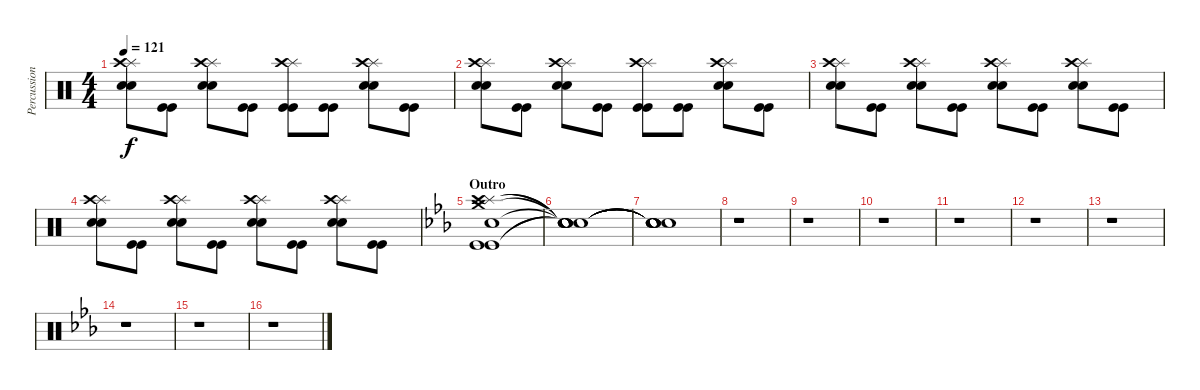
\track ("Percussions" "Percussion") {instrument percussion}
\staff {score}
\articulation defaults
\ts (4 4)
\tempo 121
\clef neutral
\ks c
("Splash (hit)" "Crash high (hit)" "Electric Snare (hit)" "Electric Snare (hit)").8{dy f} ("Kick (hit)" "Kick (hit)").8 ("Splash (hit)" "Crash high (hit)" "Electric Snare (hit)" "Electric Snare (hit)").8 ("Kick (hit)" "Kick (hit)").8 ("Splash (hit)" "Crash high (hit)" "Kick (hit)" "Kick (hit)").8 ("Kick (hit)" "Kick (hit)").8 ("Splash (hit)" "Crash high (hit)" "Electric Snare (hit)" "Electric Snare (hit)").8 ("Kick (hit)" "Kick (hit)").8 |
("Splash (hit)" "Crash high (hit)" "Electric Snare (hit)" "Electric Snare (hit)").8 ("Kick (hit)" "Kick (hit)").8 ("Splash (hit)" "Crash high (hit)" "Electric Snare (hit)" "Electric Snare (hit)").8 ("Kick (hit)" "Kick (hit)").8 ("Splash (hit)" "Crash high (hit)" "Kick (hit)" "Kick (hit)").8 ("Kick (hit)" "Kick (hit)").8 ("Splash (hit)" "Crash high (hit)" "Electric Snare (hit)" "Electric Snare (hit)").8 ("Kick (hit)" "Kick (hit)").8 |
("Splash (hit)" "Crash high (hit)" "Electric Snare (hit)" "Electric Snare (hit)").8 ("Kick (hit)" "Kick (hit)").8 ("Splash (hit)" "Crash high (hit)" "Electric Snare (hit)" "Electric Snare (hit)").8 ("Kick (hit)" "Kick (hit)").8 ("Splash (hit)" "Crash high (hit)" "Electric Snare (hit)" "Electric Snare (hit)").8 ("Kick (hit)" "Kick (hit)").8 ("Splash (hit)" "Crash high (hit)" "Electric Snare (hit)" "Electric Snare (hit)").8 ("Kick (hit)" "Kick (hit)").8 |
("Splash (hit)" "Crash high (hit)" "Electric Snare (hit)" "Electric Snare (hit)").8 ("Kick (hit)" "Kick (hit)").8 ("Splash (hit)" "Crash high (hit)" "Electric Snare (hit)" "Electric Snare (hit)").8 ("Kick (hit)" "Kick (hit)").8 ("Splash (hit)" "Crash high (hit)" "Electric Snare (hit)" "Electric Snare (hit)").8 ("Kick (hit)" "Kick (hit)").8 ("Splash (hit)" "Crash high (hit)" "Electric Snare (hit)" "Electric Snare (hit)").8 ("Kick (hit)" "Kick (hit)").8 |
\section ("" "Outro")
\ks eb
("Splash (hit)" "Crash medium (hit)" "Crash high (hit)" "Electric Snare (hit)" "Kick (hit)" "Kick (hit)").1 |
("Snare (hit)"{t} "Snare (hit)"{t} "Snare (hit)"{t} "Snare (hit)"{t} "Snare (hit)"{t} "Snare (hit)"{t}).1 |
("Snare (hit)"{t} "Snare (hit)"{t} "Snare (hit)"{t} "Snare (hit)"{t} "Snare (hit)"{t} "Snare (hit)"{t}).1 |
r.1 |
r.1 |
r.1 |
r.1 |
r.1 |
r.1 |
r.1 |
r.1 |
r.1
